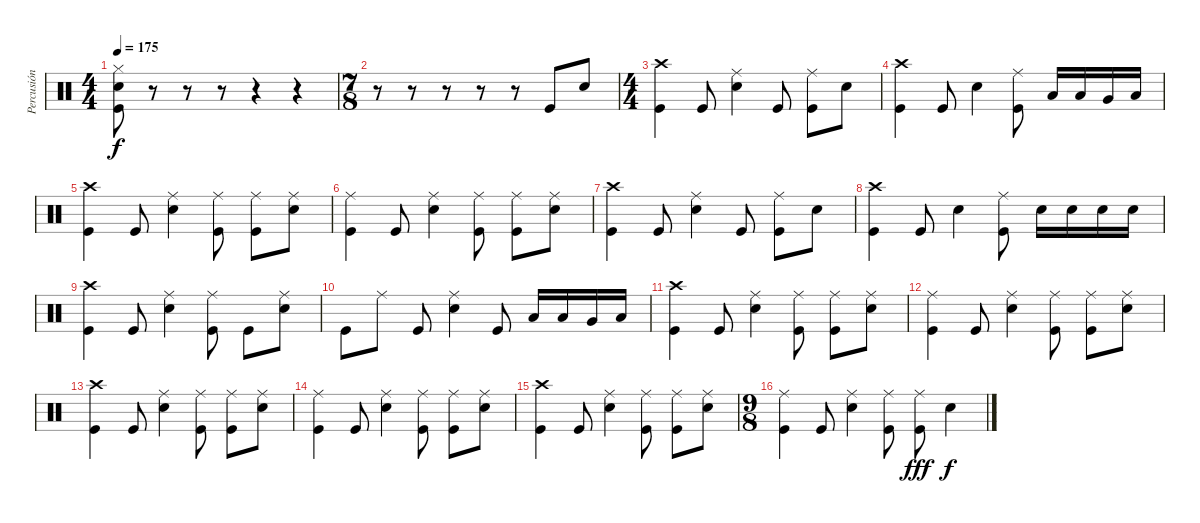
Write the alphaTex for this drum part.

\track ("Percusión" "Percusión") {instrument percussion}
\staff {score}
\articulation defaults
\ts (4 4)
\tempo 175
\clef neutral
\ks c
("Snare (hit) 2" "Kick (hit)" "Hi-Hat (closed)").8{dy f} r.8 r.8 r.8 r.4 r.4 |
\ts (7 8)
r.8 r.8 r.8 r.8 r.8 "Kick (hit)".8 "Snare (hit) 2".8 |
\ts (4 4)
("Kick (hit)" "Crash high (hit)").4 "Kick (hit)".8 ("Snare (hit) 2" "Ride (middle)").4 "Kick (hit)".8 ("Kick (hit)" "Ride (middle)").8 "Snare (hit) 2".8 |
("Kick (hit)" "Crash high (hit)").4 "Kick (hit)".8 "Snare (hit) 2".4 ("Kick (hit)" "Ride (middle)").8 "Low Tom (hit)".16 "Low Tom (hit)".16 "Very Low Tom (hit)".16 "Low Floor Tom (hit)".16 |
("Kick (hit)" "Crash high (hit)").4 "Kick (hit)".8 ("Snare (hit) 2" "Ride (middle)").4 ("Kick (hit)" "Ride (middle)").8 ("Kick (hit)" "Ride (middle)").8 ("Snare (hit) 2" "Ride (middle)").8 |
("Kick (hit)" "Ride (middle)").4 "Kick (hit)".8 ("Snare (hit) 2" "Ride (middle)").4 ("Kick (hit)" "Ride (middle)").8 ("Kick (hit)" "Ride (middle)").8 ("Snare (hit) 2" "Ride (middle)").8 |
("Kick (hit)" "Crash high (hit)").4 "Kick (hit)".8 ("Snare (hit) 2" "Ride (middle)").4 "Kick (hit)".8 ("Kick (hit)" "Ride (middle)").8 "Snare (hit) 2".8 |
("Kick (hit)" "Crash high (hit)").4 "Kick (hit)".8 "Snare (hit) 2".4 ("Kick (hit)" "Ride (middle)").8 "Snare (hit) 2".16 "Snare (hit) 2".16 "Snare (hit) 2".16 "Snare (hit) 2".16 |
("Kick (hit)" "Crash high (hit)").4 "Kick (hit)".8 ("Snare (hit) 2" "Ride (middle)").4 ("Kick (hit)" "Ride (middle)").8 "Kick (hit)".8 ("Snare (hit) 2" "Ride (middle)").8 |
"Kick (hit)".8 "Ride (middle)".8 "Kick (hit)".8 ("Snare (hit) 2" "Ride (middle)").4 "Kick (hit)".8 "Low Tom (hit)".16 "Low Tom (hit)".16 "Very Low Tom (hit)".16 "Low Floor Tom (hit)".16 |
("Kick (hit)" "Crash high (hit)").4 "Kick (hit)".8 ("Snare (hit) 2" "Ride (middle)").4 ("Kick (hit)" "Ride (middle)").8 ("Kick (hit)" "Ride (middle)").8 ("Snare (hit) 2" "Ride (middle)").8 |
("Kick (hit)" "Ride (middle)").4 "Kick (hit)".8 ("Snare (hit) 2" "Ride (middle)").4 ("Kick (hit)" "Ride (middle)").8 ("Kick (hit)" "Ride (middle)").8 ("Snare (hit) 2" "Ride (middle)").8 |
("Kick (hit)" "Crash high (hit)").4 "Kick (hit)".8 ("Snare (hit) 2" "Ride (middle)").4 ("Kick (hit)" "Ride (middle)").8 ("Kick (hit)" "Ride (middle)").8 ("Snare (hit) 2" "Ride (middle)").8 |
("Kick (hit)" "Ride (middle)").4 "Kick (hit)".8 ("Snare (hit) 2" "Ride (middle)").4 ("Kick (hit)" "Ride (middle)").8 ("Kick (hit)" "Ride (middle)").8 ("Snare (hit) 2" "Ride (middle)").8 |
("Kick (hit)" "Crash high (hit)").4 "Kick (hit)".8 ("Snare (hit) 2" "Ride (middle)").4 ("Kick (hit)" "Ride (middle)").8 ("Kick (hit)" "Ride (middle)").8 ("Snare (hit) 2" "Ride (middle)").8 |
\ts (9 8)
("Kick (hit)" "Ride (middle)").4 "Kick (hit)".8 ("Snare (hit) 2" "Ride (middle)").4 ("Kick (hit)" "Ride (middle)").8 ("Kick (hit)" "Ride (middle)").8{dy fff} "Snare (hit) 2".4{dy f}
